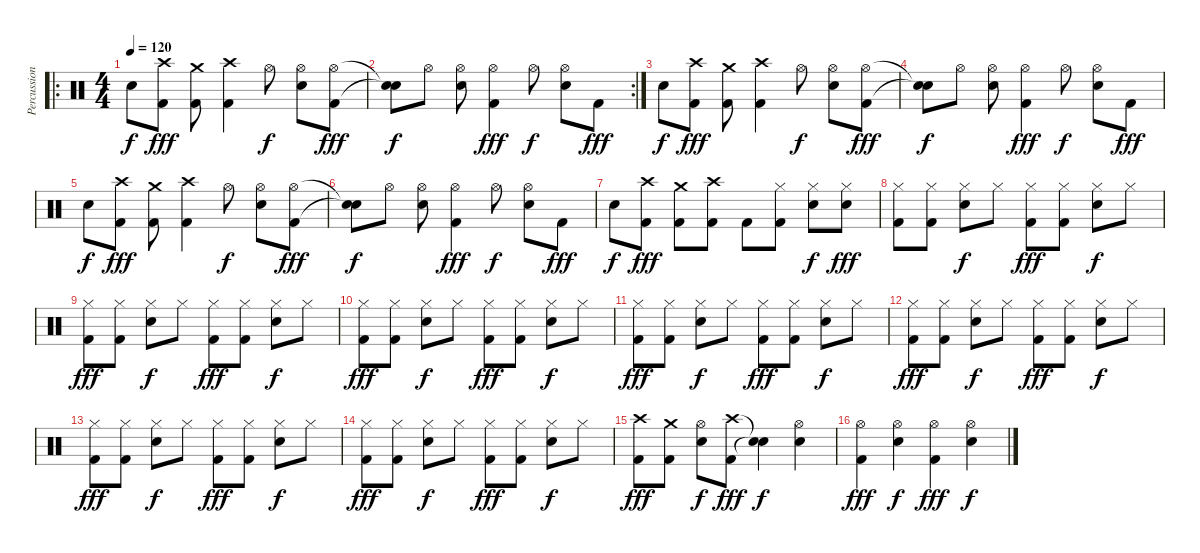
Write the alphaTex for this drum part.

\track ("Percussion" "Percussion") {instrument percussion}
\staff {score}
\articulation defaults
\ro
\ts (4 4)
\tempo 120
\clef neutral
\ks c "Snare (hit) 2".8{dy f}
("Crash high (hit)" "Kick (hit) 2").8{dy fff} ("Crash medium (hit)" "Kick (hit) 2").8 ("Crash high (hit)" "Kick (hit) 2").4 "Hi-Hat (open)".8{dy f} ("Hi-Hat (open)" "Snare (hit) 2").8 ("Hi-Hat (open)" "Kick (hit) 2").8{dy fff} |
\rc 2
("Snare (hit)"{t} "Snare (hit)"{t}).8{dy f} "Hi-Hat (open)".8 ("Hi-Hat (open)" "Snare (hit) 2").8 ("Hi-Hat (open)" "Kick (hit) 2").4{dy fff} "Hi-Hat (open)".8{dy f} ("Hi-Hat (open)" "Snare (hit) 2").8 "Kick (hit) 2".8{dy fff} |
"Snare (hit) 2".8{dy f} ("Crash high (hit)" "Kick (hit) 2").8{dy fff} ("Crash medium (hit)" "Kick (hit) 2").8 ("Crash high (hit)" "Kick (hit) 2").4 "Hi-Hat (open)".8{dy f} ("Hi-Hat (open)" "Snare (hit) 2").8 ("Hi-Hat (open)" "Kick (hit) 2").8{dy fff} |
("Snare (hit)"{t} "Snare (hit)"{t}).8{dy f} "Hi-Hat (open)".8 ("Hi-Hat (open)" "Snare (hit) 2").8 ("Hi-Hat (open)" "Kick (hit) 2").4{dy fff} "Hi-Hat (open)".8{dy f} ("Hi-Hat (open)" "Snare (hit) 2").8 "Kick (hit) 2".8{dy fff} |
"Snare (hit) 2".8{dy f} ("Crash high (hit)" "Kick (hit) 2").8{dy fff} ("Crash medium (hit)" "Kick (hit) 2").8 ("Crash high (hit)" "Kick (hit) 2").4 "Hi-Hat (open)".8{dy f} ("Hi-Hat (open)" "Snare (hit) 2").8 ("Hi-Hat (open)" "Kick (hit) 2").8{dy fff} |
("Snare (hit)"{t} "Snare (hit)"{t}).8{dy f} "Hi-Hat (open)".8 ("Hi-Hat (open)" "Snare (hit) 2").8 ("Hi-Hat (open)" "Kick (hit) 2").4{dy fff} "Hi-Hat (open)".8{dy f} ("Hi-Hat (open)" "Snare (hit) 2").8 "Kick (hit) 2".8{dy fff} |
"Snare (hit) 2".8{dy f} ("Crash high (hit)" "Kick (hit) 2").8{dy fff} ("Crash medium (hit)" "Kick (hit) 2").8 ("Crash high (hit)" "Kick (hit) 2").8 "Kick (hit) 2".8 ("Hi-Hat (closed)" "Kick (hit) 2").8 ("Hi-Hat (closed)" "Snare (hit) 2").8{dy f} ("Hi-Hat (closed)" "Snare (hit)").8{dy fff} |
("Hi-Hat (closed)" "Kick (hit) 2").8 ("Hi-Hat (closed)" "Kick (hit) 2").8 ("Hi-Hat (closed)" "Snare (hit) 2").8{dy f} "Hi-Hat (closed)".8 ("Hi-Hat (closed)" "Kick (hit) 2").8{dy fff} ("Hi-Hat (closed)" "Kick (hit) 2").8 ("Hi-Hat (closed)" "Snare (hit) 2").8{dy f} "Hi-Hat (closed)".8 |
("Hi-Hat (closed)" "Kick (hit) 2").8{dy fff} ("Hi-Hat (closed)" "Kick (hit) 2").8 ("Hi-Hat (closed)" "Snare (hit) 2").8{dy f} "Hi-Hat (closed)".8 ("Hi-Hat (closed)" "Kick (hit) 2").8{dy fff} ("Hi-Hat (closed)" "Kick (hit) 2").8 ("Hi-Hat (closed)" "Snare (hit) 2").8{dy f} "Hi-Hat (closed)".8 |
("Hi-Hat (closed)" "Kick (hit) 2").8{dy fff} ("Hi-Hat (closed)" "Kick (hit) 2").8 ("Hi-Hat (closed)" "Snare (hit) 2").8{dy f} "Hi-Hat (closed)".8 ("Hi-Hat (closed)" "Kick (hit) 2").8{dy fff} ("Hi-Hat (closed)" "Kick (hit) 2").8 ("Hi-Hat (closed)" "Snare (hit) 2").8{dy f} "Hi-Hat (closed)".8 |
("Hi-Hat (closed)" "Kick (hit) 2").8{dy fff} ("Hi-Hat (closed)" "Kick (hit) 2").8 ("Hi-Hat (closed)" "Snare (hit) 2").8{dy f} "Hi-Hat (closed)".8 ("Hi-Hat (closed)" "Kick (hit) 2").8{dy fff} ("Hi-Hat (closed)" "Kick (hit) 2").8 ("Hi-Hat (closed)" "Snare (hit) 2").8{dy f} "Hi-Hat (closed)".8 |
("Hi-Hat (closed)" "Kick (hit) 2").8{dy fff} ("Hi-Hat (closed)" "Kick (hit) 2").8 ("Hi-Hat (closed)" "Snare (hit) 2").8{dy f} "Hi-Hat (closed)".8 ("Hi-Hat (closed)" "Kick (hit) 2").8{dy fff} ("Hi-Hat (closed)" "Kick (hit) 2").8 ("Hi-Hat (closed)" "Snare (hit) 2").8{dy f} "Hi-Hat (closed)".8 |
("Hi-Hat (closed)" "Kick (hit) 2").8{dy fff} ("Hi-Hat (closed)" "Kick (hit) 2").8 ("Hi-Hat (closed)" "Snare (hit) 2").8{dy f} "Hi-Hat (closed)".8 ("Hi-Hat (closed)" "Kick (hit) 2").8{dy fff} ("Hi-Hat (closed)" "Kick (hit) 2").8 ("Hi-Hat (closed)" "Snare (hit) 2").8{dy f} "Hi-Hat (closed)".8 |
("Hi-Hat (closed)" "Kick (hit) 2").8{dy fff} ("Hi-Hat (closed)" "Kick (hit) 2").8 ("Hi-Hat (closed)" "Snare (hit) 2").8{dy f} "Hi-Hat (closed)".8 ("Hi-Hat (closed)" "Kick (hit) 2").8{dy fff} ("Hi-Hat (closed)" "Kick (hit) 2").8 ("Hi-Hat (closed)" "Snare (hit) 2").8{dy f} "Hi-Hat (closed)".8 |
("Crash high (hit)" "Kick (hit) 2").8{dy fff} ("Crash medium (hit)" "Kick (hit) 2").8 ("Hi-Hat (open)" "Snare (hit) 2").8{dy f} ("Crash high (hit)" "Kick (hit) 2").8{dy fff} ("Snare (hit)"{t} "Snare (hit)"{t}).4{dy f} ("Hi-Hat (open)" "Snare (hit) 2").4 |
("Hi-Hat (open)" "Kick (hit) 2").4{dy fff} ("Hi-Hat (open)" "Snare (hit) 2").4{dy f} ("Hi-Hat (open)" "Kick (hit) 2").4{dy fff} ("Hi-Hat (open)" "Snare (hit) 2").4{dy f}
